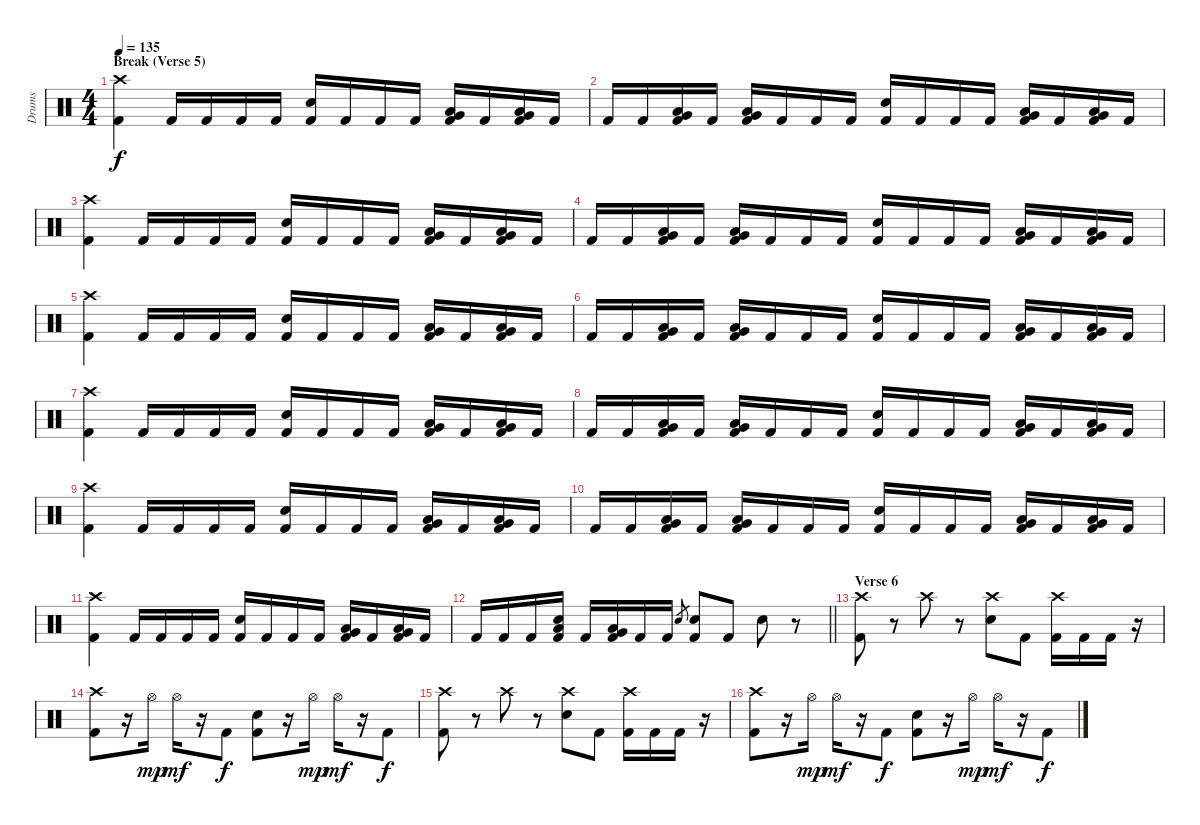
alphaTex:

\track ("Drums" "Drums") {instrument percussion}
\staff {score}
\articulation defaults
\ts (4 4)
\section ("" "Break (Verse 5)")
\tempo 135
\clef neutral
\ks c
("Crash high (hit)" "Kick (hit) 2").4{dy f} "Kick (hit) 2".16 "Kick (hit) 2".16 "Kick (hit) 2".16 "Kick (hit) 2".16 ("Snare (hit) 2" "Kick (hit) 2").16 "Kick (hit) 2".16 "Kick (hit) 2".16 "Kick (hit) 2".16 ("Very Low Tom (hit)" "Low Tom (hit)" "Kick (hit) 2").16 "Kick (hit) 2".16 ("Very Low Tom (hit)" "Low Tom (hit)" "Kick (hit) 2").16 "Kick (hit) 2".16 |
"Kick (hit) 2".16 "Kick (hit) 2".16 ("Very Low Tom (hit)" "Low Tom (hit)" "Kick (hit) 2").16 "Kick (hit) 2".16 ("Very Low Tom (hit)" "Low Tom (hit)" "Kick (hit) 2").16 "Kick (hit) 2".16 "Kick (hit) 2".16 "Kick (hit) 2".16 ("Snare (hit) 2" "Kick (hit) 2").16 "Kick (hit) 2".16 "Kick (hit) 2".16 "Kick (hit) 2".16 ("Very Low Tom (hit)" "Low Tom (hit)" "Kick (hit) 2").16 "Kick (hit) 2".16 ("Very Low Tom (hit)" "Low Tom (hit)" "Kick (hit) 2").16 "Kick (hit) 2".16 |
("Crash high (hit)" "Kick (hit) 2").4 "Kick (hit) 2".16 "Kick (hit) 2".16 "Kick (hit) 2".16 "Kick (hit) 2".16 ("Snare (hit) 2" "Kick (hit) 2").16 "Kick (hit) 2".16 "Kick (hit) 2".16 "Kick (hit) 2".16 ("Very Low Tom (hit)" "Low Tom (hit)" "Kick (hit) 2").16 "Kick (hit) 2".16 ("Very Low Tom (hit)" "Low Tom (hit)" "Kick (hit) 2").16 "Kick (hit) 2".16 |
"Kick (hit) 2".16 "Kick (hit) 2".16 ("Very Low Tom (hit)" "Low Tom (hit)" "Kick (hit) 2").16 "Kick (hit) 2".16 ("Very Low Tom (hit)" "Low Tom (hit)" "Kick (hit) 2").16 "Kick (hit) 2".16 "Kick (hit) 2".16 "Kick (hit) 2".16 ("Snare (hit) 2" "Kick (hit) 2").16 "Kick (hit) 2".16 "Kick (hit) 2".16 "Kick (hit) 2".16 ("Very Low Tom (hit)" "Low Tom (hit)" "Kick (hit) 2").16 "Kick (hit) 2".16 ("Very Low Tom (hit)" "Low Tom (hit)" "Kick (hit) 2").16 "Kick (hit) 2".16 |
("Crash high (hit)" "Kick (hit) 2").4 "Kick (hit) 2".16 "Kick (hit) 2".16 "Kick (hit) 2".16 "Kick (hit) 2".16 ("Snare (hit) 2" "Kick (hit) 2").16 "Kick (hit) 2".16 "Kick (hit) 2".16 "Kick (hit) 2".16 ("Very Low Tom (hit)" "Low Tom (hit)" "Kick (hit) 2").16 "Kick (hit) 2".16 ("Very Low Tom (hit)" "Low Tom (hit)" "Kick (hit) 2").16 "Kick (hit) 2".16 |
"Kick (hit) 2".16 "Kick (hit) 2".16 ("Very Low Tom (hit)" "Low Tom (hit)" "Kick (hit) 2").16 "Kick (hit) 2".16 ("Very Low Tom (hit)" "Low Tom (hit)" "Kick (hit) 2").16 "Kick (hit) 2".16 "Kick (hit) 2".16 "Kick (hit) 2".16 ("Snare (hit) 2" "Kick (hit) 2").16 "Kick (hit) 2".16 "Kick (hit) 2".16 "Kick (hit) 2".16 ("Very Low Tom (hit)" "Low Tom (hit)" "Kick (hit) 2").16 "Kick (hit) 2".16 ("Very Low Tom (hit)" "Low Tom (hit)" "Kick (hit) 2").16 "Kick (hit) 2".16 |
("Crash high (hit)" "Kick (hit) 2").4 "Kick (hit) 2".16 "Kick (hit) 2".16 "Kick (hit) 2".16 "Kick (hit) 2".16 ("Snare (hit) 2" "Kick (hit) 2").16 "Kick (hit) 2".16 "Kick (hit) 2".16 "Kick (hit) 2".16 ("Very Low Tom (hit)" "Low Tom (hit)" "Kick (hit) 2").16 "Kick (hit) 2".16 ("Very Low Tom (hit)" "Low Tom (hit)" "Kick (hit) 2").16 "Kick (hit) 2".16 |
"Kick (hit) 2".16 "Kick (hit) 2".16 ("Very Low Tom (hit)" "Low Tom (hit)" "Kick (hit) 2").16 "Kick (hit) 2".16 ("Very Low Tom (hit)" "Low Tom (hit)" "Kick (hit) 2").16 "Kick (hit) 2".16 "Kick (hit) 2".16 "Kick (hit) 2".16 ("Snare (hit) 2" "Kick (hit) 2").16 "Kick (hit) 2".16 "Kick (hit) 2".16 "Kick (hit) 2".16 ("Very Low Tom (hit)" "Low Tom (hit)" "Kick (hit) 2").16 "Kick (hit) 2".16 ("Very Low Tom (hit)" "Low Tom (hit)" "Kick (hit) 2").16 "Kick (hit) 2".16 |
("Crash high (hit)" "Kick (hit) 2").4 "Kick (hit) 2".16 "Kick (hit) 2".16 "Kick (hit) 2".16 "Kick (hit) 2".16 ("Snare (hit) 2" "Kick (hit) 2").16 "Kick (hit) 2".16 "Kick (hit) 2".16 "Kick (hit) 2".16 ("Very Low Tom (hit)" "Low Tom (hit)" "Kick (hit) 2").16 "Kick (hit) 2".16 ("Very Low Tom (hit)" "Low Tom (hit)" "Kick (hit) 2").16 "Kick (hit) 2".16 |
"Kick (hit) 2".16 "Kick (hit) 2".16 ("Very Low Tom (hit)" "Low Tom (hit)" "Kick (hit) 2").16 "Kick (hit) 2".16 ("Very Low Tom (hit)" "Low Tom (hit)" "Kick (hit) 2").16 "Kick (hit) 2".16 "Kick (hit) 2".16 "Kick (hit) 2".16 ("Snare (hit) 2" "Kick (hit) 2").16 "Kick (hit) 2".16 "Kick (hit) 2".16 "Kick (hit) 2".16 ("Very Low Tom (hit)" "Low Tom (hit)" "Kick (hit) 2").16 "Kick (hit) 2".16 ("Very Low Tom (hit)" "Low Tom (hit)" "Kick (hit) 2").16 "Kick (hit) 2".16 |
("Crash high (hit)" "Kick (hit) 2").4 "Kick (hit) 2".16 "Kick (hit) 2".16 "Kick (hit) 2".16 "Kick (hit) 2".16 ("Snare (hit) 2" "Kick (hit) 2").16 "Kick (hit) 2".16 "Kick (hit) 2".16 "Kick (hit) 2".16 ("Very Low Tom (hit)" "Low Tom (hit)" "Kick (hit) 2").16 "Kick (hit) 2".16 ("Very Low Tom (hit)" "Low Tom (hit)" "Kick (hit) 2").16 "Kick (hit) 2".16 |
\barLineRight lightlight "Kick (hit) 2".16 "Kick (hit) 2".16 "Kick (hit) 2".16
("Snare (hit)" "Low Tom (hit)" "Kick (hit) 2").16 "Kick (hit) 2".16 ("Very Low Tom (hit)" "Low Tom (hit)" "Kick (hit) 2").16 "Kick (hit) 2".16 "Kick (hit) 2".16 "Snare (hit) 2".8{gr} ("Snare (hit) 2" "Kick (hit) 2").8 "Kick (hit) 2".8 "Snare (hit) 2".8 r.8 |
\section ("" "Verse 6")
("Crash high (hit)" "Kick (hit) 2").8 r.8 "Crash high (hit)".8 r.8 ("Crash high (hit)" "Snare (hit) 2").8 "Kick (hit) 2".8 ("Crash high (hit)" "Kick (hit) 2").16 "Kick (hit) 2".16 "Kick (hit) 2".16 r.16 |
("Crash high (hit)" "Kick (hit) 2").8 r.16 "Hi-Hat (open)".16{dy mp} "Hi-Hat (open)".16{dy mf} r.16 "Kick (hit) 2".8{dy f} ("Snare (hit) 2" "Kick (hit) 2").8 r.16 "Hi-Hat (open)".16{dy mp} "Hi-Hat (open)".16{dy mf} r.16 "Kick (hit) 2".8{dy f} |
("Crash high (hit)" "Kick (hit) 2").8 r.8 "Crash high (hit)".8 r.8 ("Crash high (hit)" "Snare (hit) 2").8 "Kick (hit) 2".8 ("Crash high (hit)" "Kick (hit) 2").16 "Kick (hit) 2".16 "Kick (hit) 2".16 r.16 |
("Crash high (hit)" "Kick (hit) 2").8 r.16 "Hi-Hat (open)".16{dy mp} "Hi-Hat (open)".16{dy mf} r.16 "Kick (hit) 2".8{dy f} ("Snare (hit) 2" "Kick (hit) 2").8 r.16 "Hi-Hat (open)".16{dy mp} "Hi-Hat (open)".16{dy mf} r.16 "Kick (hit) 2".8{dy f}
